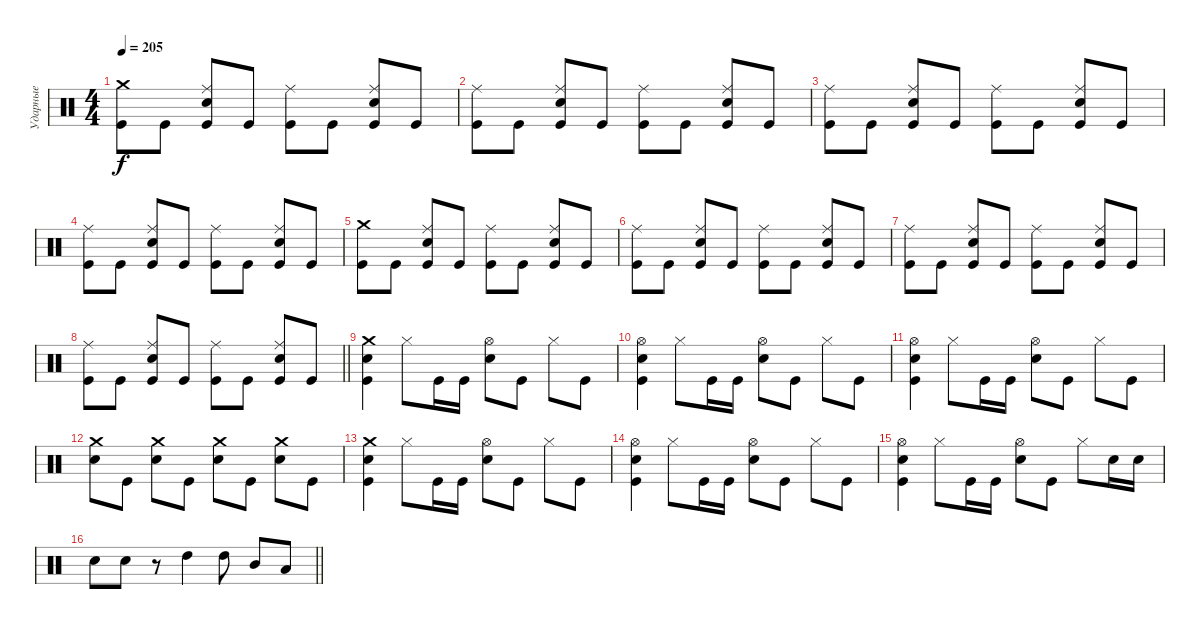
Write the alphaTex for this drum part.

\track ("Ударные" "Ударные") {instrument percussion}
\staff {score}
\articulation defaults
\ts (4 4)
\tempo 205
\clef neutral
\ks c
("Crash medium (hit)" "Kick (hit)").8{dy f} "Kick (hit)".8 ("Ride (middle)" "Snare (hit) 2" "Kick (hit)").8 "Kick (hit)".8 ("Ride (middle)" "Kick (hit)").8 "Kick (hit)".8 ("Ride (middle)" "Snare (hit) 2" "Kick (hit)").8 "Kick (hit)".8 |
("Ride (middle)" "Kick (hit)").8 "Kick (hit)".8 ("Ride (middle)" "Snare (hit) 2" "Kick (hit)").8 "Kick (hit)".8 ("Ride (middle)" "Kick (hit)").8 "Kick (hit)".8 ("Ride (middle)" "Snare (hit) 2" "Kick (hit)").8 "Kick (hit)".8 |
("Ride (middle)" "Kick (hit)").8 "Kick (hit)".8 ("Ride (middle)" "Snare (hit) 2" "Kick (hit)").8 "Kick (hit)".8 ("Ride (middle)" "Kick (hit)").8 "Kick (hit)".8 ("Ride (middle)" "Snare (hit) 2" "Kick (hit)").8 "Kick (hit)".8 |
("Ride (middle)" "Kick (hit)").8 "Kick (hit)".8 ("Ride (middle)" "Snare (hit) 2" "Kick (hit)").8 "Kick (hit)".8 ("Ride (middle)" "Kick (hit)").8 "Kick (hit)".8 ("Ride (middle)" "Snare (hit) 2" "Kick (hit)").8 "Kick (hit)".8 |
("Crash medium (hit)" "Kick (hit)").8 "Kick (hit)".8 ("Ride (middle)" "Snare (hit) 2" "Kick (hit)").8 "Kick (hit)".8 ("Ride (middle)" "Kick (hit)").8 "Kick (hit)".8 ("Ride (middle)" "Snare (hit) 2" "Kick (hit)").8 "Kick (hit)".8 |
("Ride (middle)" "Kick (hit)").8 "Kick (hit)".8 ("Ride (middle)" "Snare (hit) 2" "Kick (hit)").8 "Kick (hit)".8 ("Ride (middle)" "Kick (hit)").8 "Kick (hit)".8 ("Ride (middle)" "Snare (hit) 2" "Kick (hit)").8 "Kick (hit)".8 |
("Ride (middle)" "Kick (hit)").8 "Kick (hit)".8 ("Ride (middle)" "Snare (hit) 2" "Kick (hit)").8 "Kick (hit)".8 ("Ride (middle)" "Kick (hit)").8 "Kick (hit)".8 ("Ride (middle)" "Snare (hit) 2" "Kick (hit)").8 "Kick (hit)".8 |
\barLineRight lightlight
("Ride (middle)" "Kick (hit)").8 "Kick (hit)".8 ("Ride (middle)" "Snare (hit) 2" "Kick (hit)").8 "Kick (hit)".8 ("Ride (middle)" "Kick (hit)").8 "Kick (hit)".8 ("Ride (middle)" "Snare (hit) 2" "Kick (hit)").8 "Kick (hit)".8 |
("Crash medium (hit)" "Snare (hit) 2" "Kick (hit)").4 "Hi-Hat (closed)".8 "Kick (hit)".16 "Kick (hit)".16 ("Hi-Hat (open)" "Snare (hit) 2").8 "Kick (hit)".8 "Hi-Hat (closed)".8 "Kick (hit)".8 |
("Hi-Hat (open)" "Snare (hit) 2" "Kick (hit)").4 "Hi-Hat (closed)".8 "Kick (hit)".16 "Kick (hit)".16 ("Hi-Hat (open)" "Snare (hit) 2").8 "Kick (hit)".8 "Hi-Hat (closed)".8 "Kick (hit)".8 |
("Hi-Hat (open)" "Snare (hit) 2" "Kick (hit)").4 "Hi-Hat (closed)".8 "Kick (hit)".16 "Kick (hit)".16 ("Hi-Hat (open)" "Snare (hit) 2").8 "Kick (hit)".8 "Hi-Hat (closed)".8 "Kick (hit)".8 |
("Crash medium (hit)" "Snare (hit) 2").8 "Kick (hit)".8 ("Crash medium (hit)" "Snare (hit) 2").8 "Kick (hit)".8 ("Crash medium (hit)" "Snare (hit) 2").8 "Kick (hit)".8 ("Crash medium (hit)" "Snare (hit) 2").8 "Kick (hit)".8 |
("Crash medium (hit)" "Snare (hit) 2" "Kick (hit)").4 "Hi-Hat (closed)".8 "Kick (hit)".16 "Kick (hit)".16 ("Hi-Hat (open)" "Snare (hit) 2").8 "Kick (hit)".8 "Hi-Hat (closed)".8 "Kick (hit)".8 |
("Hi-Hat (open)" "Snare (hit) 2" "Kick (hit)").4 "Hi-Hat (closed)".8 "Kick (hit)".16 "Kick (hit)".16 ("Hi-Hat (open)" "Snare (hit) 2").8 "Kick (hit)".8 "Hi-Hat (closed)".8 "Kick (hit)".8 |
("Hi-Hat (open)" "Snare (hit) 2" "Kick (hit)").4 "Hi-Hat (closed)".8 "Kick (hit)".16 "Kick (hit)".16 ("Hi-Hat (open)" "Snare (hit) 2").8 "Kick (hit)".8 "Hi-Hat (closed)".8 "Snare (hit) 2".16 "Snare (hit) 2".16 |
\barLineRight lightlight "Snare (hit) 2".8 "Snare (hit) 2".8
r.8 "High Tom (hit)".4 "High Tom (hit)".8 "Mid Tom (hit)".8 "Low Tom (hit)".8
